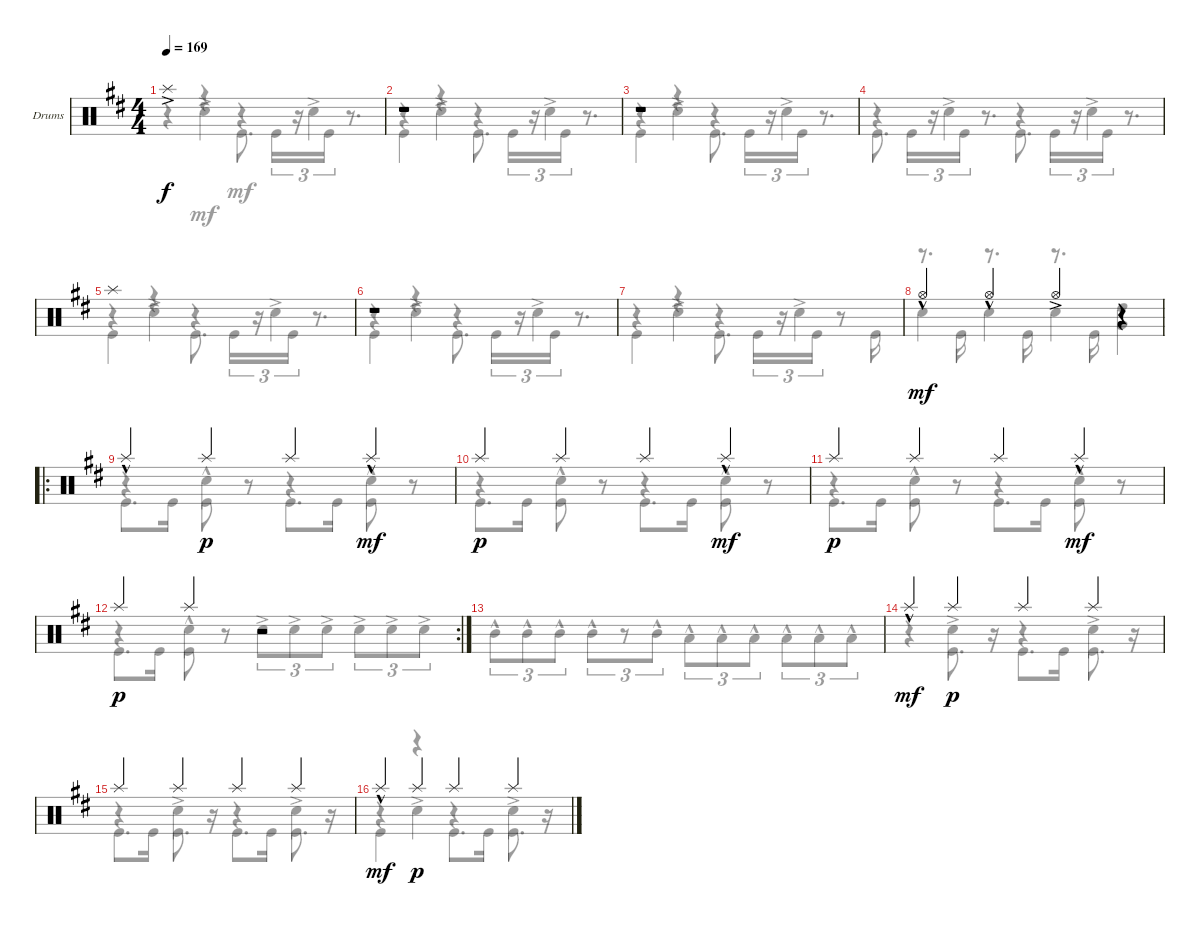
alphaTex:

\defaultSystemsLayout 4
\bracketExtendMode groupsimilarinstruments
\firstSystemTrackNameOrientation horizontal
\otherSystemsTrackNameOrientation horizontal
\track ("Drumkit (Wolf Gemora)" "Drums") {instrument percussion}
\staff {score}
\articulation defaults
\voice
\ts (4 4)
\tempo 169
\clef neutral
\ks bminor "Splash (hit)"{ac}.1{dy f}
|
r.1 |
r.1 |
|
"Splash (hit)".1 |
\scale
0.384995 r.1 |
\scale
0.353879 |
\scale
0.259484 "Hi-Hat (open)"{hac}.4{dy mf} "Hi-Hat (open)"{hac}.4 "Hi-Hat (open)"{ac}.4 r.4 |
\ro
\scale
0.361047 "Splash (hit)"{hac}.4 "Splash (hit)".4{dy p} "Splash (hit)".4 "Splash (hit)"{hac}.4{dy mf} |
\scale
0.344637 "Splash (hit)".4{dy p} "Splash (hit)".4 "Splash (hit)".4 "Splash (hit)"{hac}.4{dy mf} |
\scale
0.294363 "Splash (hit)".4{dy p} "Splash (hit)".4 "Splash (hit)".4 "Splash (hit)"{hac}.4{dy mf} |
\rc 2
\scale
0.385304 "Splash (hit)".4{dy p} "Splash (hit)".4 r.2 |
\scale
0.32317 |
\scale
0.291548 "Splash (hit)"{hac}.4{dy mf} "Splash (hit)".4{dy p} "Splash (hit)".4 "Splash (hit)".4 |
\scale
0.385764 "Splash (hit)".4 "Splash (hit)".4 "Splash (hit)".4 "Splash (hit)".4 |
\scale
0.319938 "Splash (hit)"{hac}.4{dy mf} "Splash (hit)".4{dy p} "Splash (hit)".4 "Splash (hit)".4
\voice
\clef neutral
\ottava regular
\simile none
\ks bminor
r.4{dy mf} r.4 "Kick (hit)".8{d} "Kick (hit)".16{tu (3 2)} r.16{tu (3 2)} "Kick (hit)".16{tu (3 2)} r.8{d} |
"Kick (hit)".4 r.4 "Kick (hit)".8{d} "Kick (hit)".16{tu (3 2)} r.16{tu (3 2)} "Kick (hit)".16{tu (3 2)} r.8{d} |
"Kick (hit)".4 r.4 "Kick (hit)".8{d} "Kick (hit)".16{tu (3 2)} r.16{tu (3 2)} "Kick (hit)".16{tu (3 2)} r.8{d} |
"Kick (hit)".8{d} "Kick (hit)".16{tu (3 2)} r.16{tu (3 2)} "Kick (hit)".16{tu (3 2)} r.8{d} "Kick (hit)".8{d} "Kick (hit)".16{tu (3 2)} r.16{tu (3 2)} "Kick (hit)".16{tu (3 2)} r.8{d} |
"Kick (hit)".4 r.4 "Kick (hit)".8{d} "Kick (hit)".16{tu (3 2)} r.16{tu (3 2)} "Kick (hit)".16{tu (3 2)} r.8{d} |
\scale
0.384995 "Kick (hit)".4 r.4 "Kick (hit)".8{d} "Kick (hit)".16{tu (3 2)} r.16{tu (3 2)} "Kick (hit)".16{tu (3 2)} r.8{d} |
\scale
0.353879 "Kick (hit)".4 r.4 "Kick (hit)".8{d} "Kick (hit)".16{tu (3 2)} r.16{tu (3 2)} "Kick (hit)".16{tu (3 2)} r.8 "Kick (hit)".16 |
\scale
0.259484 r.8{d} "Kick (hit)".16 r.8{d} "Kick (hit)".16 r.8{d} "Kick (hit)".16 r.4 |
\scale
0.361047 "Kick (hit)".8{d} "Kick (hit)".16 "Kick (hit)".8 r.8 "Kick (hit)".8{d} "Kick (hit)".16 "Kick (hit)".8 r.8 |
\scale
0.344637 "Kick (hit)".8{d} "Kick (hit)".16 "Kick (hit)".8 r.8 "Kick (hit)".8{d} "Kick (hit)".16 "Kick (hit)".8 r.8 |
\scale
0.294363 "Kick (hit)".8{d} "Kick (hit)".16 "Kick (hit)".8 r.8 "Kick (hit)".8{d} "Kick (hit)".16 "Kick (hit)".8 r.8 |
\scale
0.385304 "Kick (hit)".8{d} "Kick (hit)".16 "Kick (hit)".8 r.8 r.2 |
\scale
0.32317 |
\scale
0.291548 r.4 "Kick (hit)".8{d} r.16 "Kick (hit)".8{d} "Kick (hit)".16 "Kick (hit)".8{d} r.16 |
\scale
0.385764 "Kick (hit)".8{d} "Kick (hit)".16 "Kick (hit)".8{d} r.16 "Kick (hit)".8{d} "Kick (hit)".16 "Kick (hit)".8{d} r.16 |
\scale
0.319938 "Kick (hit)".4 r.4 "Kick (hit)".8{d} "Kick (hit)".16 "Kick (hit)".8{d} r.16
\voice
\clef neutral
\ottava regular
\simile none
\ks bminor
r.4{dy mf} "Snare (hit) 2"{ac}.4 r.4 "Snare (hit) 2"{ac}.4 |
r.4 "Snare (hit) 2"{ac}.4 r.4 "Snare (hit) 2"{ac}.4 |
r.4 "Snare (hit) 2"{ac}.4 r.4 "Snare (hit) 2"{ac}.4 |
r.4 "Snare (hit) 2"{ac}.4 r.4 "Snare (hit) 2"{ac}.4 |
r.4 "Snare (hit) 2"{ac}.4 r.4 "Snare (hit) 2"{ac}.4 |
\scale
0.384995 r.4 "Snare (hit) 2"{ac}.4 r.4 "Snare (hit) 2"{ac}.4 |
\scale
0.353879 r.4 "Snare (hit) 2"{ac}.4 r.4 "Snare (hit) 2"{ac}.4 |
\scale
0.259484 "Snare (hit) 2".4 "Snare (hit) 2".4 "Snare (hit) 2".4 ("Very Low Tom (hit)" "High Tom (hit)").4 |
\scale
0.361047 r.4 "Snare (hit) 2"{hac}.4 r.4 "Snare (hit) 2"{hac}.4 |
\scale
0.344637 r.4 "Snare (hit) 2"{hac}.4 r.4 "Snare (hit) 2"{hac}.4 |
\scale
0.294363 r.4 "Snare (hit) 2"{hac}.4 r.4 "Snare (hit) 2"{hac}.4 |
\scale
0.385304 r.4 "Snare (hit) 2"{hac}.4 "Snare (hit) 2"{ac}.8{tu (3 2)} "Snare (hit) 2"{ac}.8{tu (3 2)} "Snare (hit) 2"{ac}.8{tu (3 2)} "Snare (hit) 2"{ac}.8{tu (3 2)} "Snare (hit) 2"{ac}.8{tu (3 2)} "Snare (hit) 2"{ac}.8{tu (3 2)} |
\scale
0.32317 "Mid Tom (hit)"{hac}.8{tu (3 2)} "Mid Tom (hit)"{hac}.8{tu (3 2)} "Mid Tom (hit)"{hac}.8{tu (3 2)} "Mid Tom (hit)"{hac}.8{tu (3 2)} r.8{tu (3 2)} "Mid Tom (hit)"{hac}.8{tu (3 2)} "Low Tom (hit)"{hac}.8{tu (3 2)} "Low Tom (hit)"{hac}.8{tu (3 2)} "Low Tom (hit)"{hac}.8{tu (3 2)} "Low Tom (hit)"{hac}.8{tu (3 2)} "Low Tom (hit)"{hac}.8{tu (3 2)} "Low Tom (hit)"{hac}.8{tu (3 2)} |
\scale
0.291548 r.4 "Snare (hit) 2"{ac}.4 r.4 "Snare (hit) 2"{ac}.4 |
\scale
0.385764 r.4 "Snare (hit) 2"{ac}.4 r.4 "Snare (hit) 2"{ac}.4 |
\scale
0.319938 r.4 "Snare (hit) 2"{ac}.4 r.4 "Snare (hit) 2"{ac}.4
